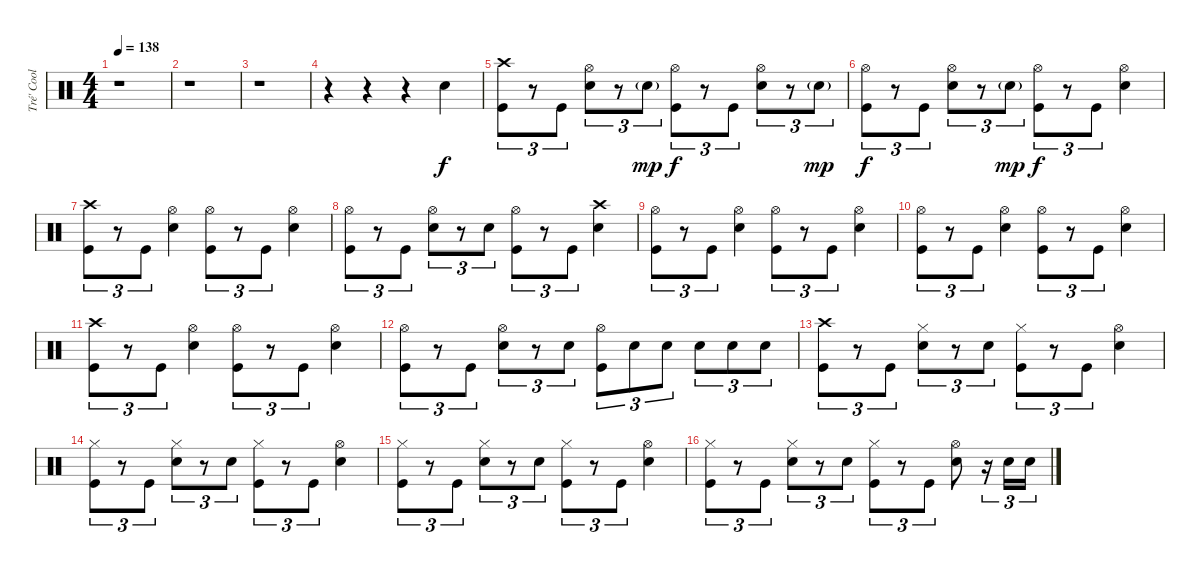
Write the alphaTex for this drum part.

\track ("Tré' Cool" "Tré' Cool") {instrument percussion}
\staff {score}
\articulation defaults
\ts (4 4)
\tempo 138
\clef neutral
\ks c
r.1{dy f} |
r.1 |
r.1 |
r.4 r.4 r.4 "Electric Snare (hit)".4 |
("Crash high (hit)" "Kick (hit)").8{tu (3 2)} r.8{tu (3 2)} "Kick (hit)".8{tu (3 2)} ("Hi-Hat (open)" "Electric Snare (hit)").8{tu (3 2)} r.8{tu (3 2)} "Electric Snare (hit)"{g}.8{tu (3 2) dy mp} ("Hi-Hat (open)" "Kick (hit)").8{tu (3 2) dy f} r.8{tu (3 2)} "Kick (hit)".8{tu (3 2)} ("Hi-Hat (open)" "Electric Snare (hit)").8{tu (3 2)} r.8{tu (3 2)} "Electric Snare (hit)"{g}.8{tu (3 2) dy mp} |
("Hi-Hat (open)" "Kick (hit)").8{tu (3 2) dy f} r.8{tu (3 2)} "Kick (hit)".8{tu (3 2)} ("Hi-Hat (open)" "Electric Snare (hit)").8{tu (3 2)} r.8{tu (3 2)} "Electric Snare (hit)"{g}.8{tu (3 2) dy mp} ("Hi-Hat (open)" "Kick (hit)").8{tu (3 2) dy f} r.8{tu (3 2)} "Kick (hit)".8{tu (3 2)} ("Hi-Hat (open)" "Electric Snare (hit)").4 |
("Crash high (hit)" "Kick (hit)").8{tu (3 2)} r.8{tu (3 2)} "Kick (hit)".8{tu (3 2)} ("Hi-Hat (open)" "Electric Snare (hit)").4 ("Hi-Hat (open)" "Kick (hit)").8{tu (3 2)} r.8{tu (3 2)} "Kick (hit)".8{tu (3 2)} ("Hi-Hat (open)" "Electric Snare (hit)").4 |
("Hi-Hat (open)" "Kick (hit)").8{tu (3 2)} r.8{tu (3 2)} "Kick (hit)".8{tu (3 2)} ("Hi-Hat (open)" "Electric Snare (hit)").8{tu (3 2)} r.8{tu (3 2)} "Electric Snare (hit)".8{tu (3 2)} ("Hi-Hat (open)" "Kick (hit)").8{tu (3 2)} r.8{tu (3 2)} "Kick (hit)".8{tu (3 2)} ("Crash high (hit)" "Electric Snare (hit)").4 |
("Hi-Hat (open)" "Kick (hit)").8{tu (3 2)} r.8{tu (3 2)} "Kick (hit)".8{tu (3 2)} ("Hi-Hat (open)" "Electric Snare (hit)").4 ("Hi-Hat (open)" "Kick (hit)").8{tu (3 2)} r.8{tu (3 2)} "Kick (hit)".8{tu (3 2)} ("Hi-Hat (open)" "Electric Snare (hit)").4 |
("Hi-Hat (open)" "Kick (hit)").8{tu (3 2)} r.8{tu (3 2)} "Kick (hit)".8{tu (3 2)} ("Hi-Hat (open)" "Electric Snare (hit)").4 ("Hi-Hat (open)" "Kick (hit)").8{tu (3 2)} r.8{tu (3 2)} "Kick (hit)".8{tu (3 2)} ("Hi-Hat (open)" "Electric Snare (hit)").4 |
("Crash high (hit)" "Kick (hit)").8{tu (3 2)} r.8{tu (3 2)} "Kick (hit)".8{tu (3 2)} ("Hi-Hat (open)" "Electric Snare (hit)").4 ("Hi-Hat (open)" "Kick (hit)").8{tu (3 2)} r.8{tu (3 2)} "Kick (hit)".8{tu (3 2)} ("Hi-Hat (open)" "Electric Snare (hit)").4 |
("Hi-Hat (open)" "Kick (hit)").8{tu (3 2)} r.8{tu (3 2)} "Kick (hit)".8{tu (3 2)} ("Hi-Hat (open)" "Electric Snare (hit)").8{tu (3 2)} r.8{tu (3 2)} "Electric Snare (hit)".8{tu (3 2)} ("Hi-Hat (open)" "Kick (hit)").8{tu (3 2)} "Electric Snare (hit)".8{tu (3 2)} "Electric Snare (hit)".8{tu (3 2)} "Electric Snare (hit)".8{tu (3 2)} "Electric Snare (hit)".8{tu (3 2)} "Electric Snare (hit)".8{tu (3 2)} |
("Crash high (hit)" "Kick (hit)").8{tu (3 2)} r.8{tu (3 2)} "Kick (hit)".8{tu (3 2)} ("Hi-Hat (closed)" "Electric Snare (hit)").8{tu (3 2)} r.8{tu (3 2)} "Electric Snare (hit)".8{tu (3 2)} ("Hi-Hat (closed)" "Kick (hit)").8{tu (3 2)} r.8{tu (3 2)} "Kick (hit)".8{tu (3 2)} ("Hi-Hat (open)" "Electric Snare (hit)").4 |
("Hi-Hat (closed)" "Kick (hit)").8{tu (3 2)} r.8{tu (3 2)} "Kick (hit)".8{tu (3 2)} ("Hi-Hat (closed)" "Electric Snare (hit)").8{tu (3 2)} r.8{tu (3 2)} "Electric Snare (hit)".8{tu (3 2)} ("Hi-Hat (closed)" "Kick (hit)").8{tu (3 2)} r.8{tu (3 2)} "Kick (hit)".8{tu (3 2)} ("Hi-Hat (open)" "Electric Snare (hit)").4 |
("Hi-Hat (closed)" "Kick (hit)").8{tu (3 2)} r.8{tu (3 2)} "Kick (hit)".8{tu (3 2)} ("Hi-Hat (closed)" "Electric Snare (hit)").8{tu (3 2)} r.8{tu (3 2)} "Electric Snare (hit)".8{tu (3 2)} ("Hi-Hat (closed)" "Kick (hit)").8{tu (3 2)} r.8{tu (3 2)} "Kick (hit)".8{tu (3 2)} ("Hi-Hat (open)" "Electric Snare (hit)").4 |
("Hi-Hat (closed)" "Kick (hit)").8{tu (3 2)} r.8{tu (3 2)} "Kick (hit)".8{tu (3 2)} ("Hi-Hat (closed)" "Electric Snare (hit)").8{tu (3 2)} r.8{tu (3 2)} "Electric Snare (hit)".8{tu (3 2)} ("Hi-Hat (closed)" "Kick (hit)").8{tu (3 2)} r.8{tu (3 2)} "Kick (hit)".8{tu (3 2)} ("Hi-Hat (open)" "Electric Snare (hit)").8 r.16{tu (3 2)} "Electric Snare (hit)".16{tu (3 2)} "Electric Snare (hit)".16{tu (3 2)}
